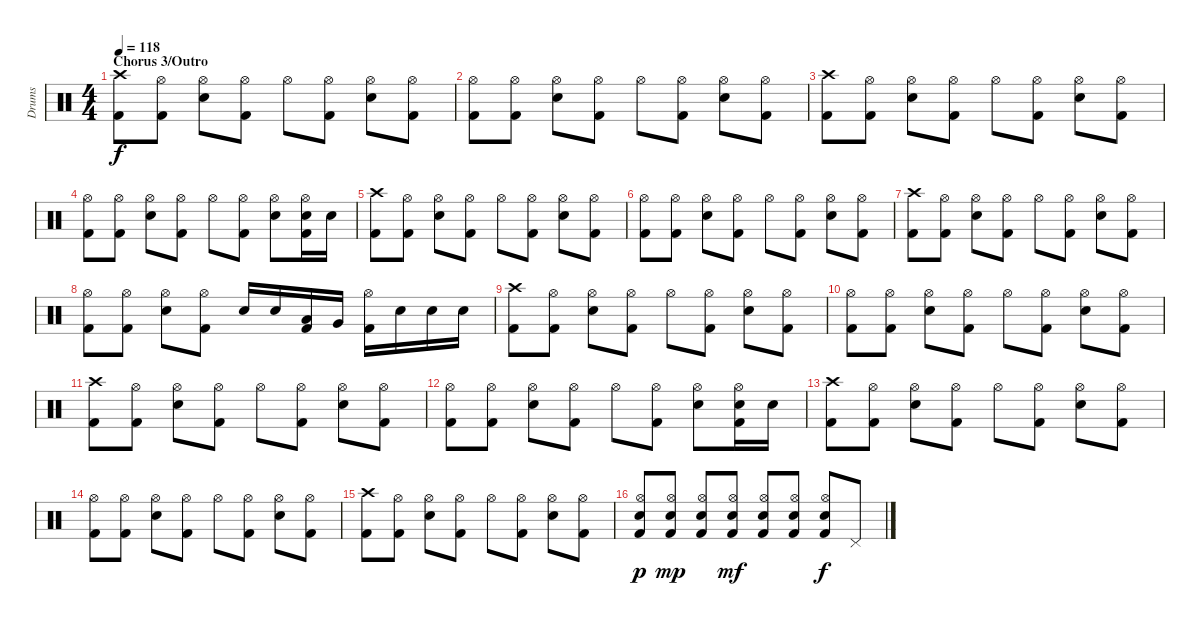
\track ("Drums" "Drums") {instrument percussion}
\staff {score}
\articulation defaults
\ts (4 4)
\section ("" "Chorus 3/Outro")
\tempo 118
\clef neutral
\ks c
("Crash high (hit)" "Kick (hit) 2").8{dy f} ("Hi-Hat (open)" "Kick (hit) 2").8 ("Hi-Hat (open)" "Electric Snare (hit)").8 ("Hi-Hat (open)" "Kick (hit) 2").8 "Hi-Hat (open)".8 ("Hi-Hat (open)" "Kick (hit) 2").8 ("Hi-Hat (open)" "Electric Snare (hit)").8 ("Hi-Hat (open)" "Kick (hit) 2").8 |
("Hi-Hat (open)" "Kick (hit) 2").8 ("Hi-Hat (open)" "Kick (hit) 2").8 ("Hi-Hat (open)" "Electric Snare (hit)").8 ("Hi-Hat (open)" "Kick (hit) 2").8 "Hi-Hat (open)".8 ("Hi-Hat (open)" "Kick (hit) 2").8 ("Hi-Hat (open)" "Electric Snare (hit)").8 ("Hi-Hat (open)" "Kick (hit) 2").8 |
("Crash high (hit)" "Kick (hit) 2").8 ("Hi-Hat (open)" "Kick (hit) 2").8 ("Hi-Hat (open)" "Electric Snare (hit)").8 ("Hi-Hat (open)" "Kick (hit) 2").8 "Hi-Hat (open)".8 ("Hi-Hat (open)" "Kick (hit) 2").8 ("Hi-Hat (open)" "Electric Snare (hit)").8 ("Hi-Hat (open)" "Kick (hit) 2").8 |
("Hi-Hat (open)" "Kick (hit) 2").8 ("Hi-Hat (open)" "Kick (hit) 2").8 ("Hi-Hat (open)" "Electric Snare (hit)").8 ("Hi-Hat (open)" "Kick (hit) 2").8 "Hi-Hat (open)".8 ("Hi-Hat (open)" "Kick (hit) 2").8 ("Hi-Hat (open)" "Electric Snare (hit)").8 ("Hi-Hat (open)" "Electric Snare (hit)" "Kick (hit) 2").16 "Electric Snare (hit)".16 |
("Crash high (hit)" "Kick (hit) 2").8 ("Hi-Hat (open)" "Kick (hit) 2").8 ("Hi-Hat (open)" "Electric Snare (hit)").8 ("Hi-Hat (open)" "Kick (hit) 2").8 "Hi-Hat (open)".8 ("Hi-Hat (open)" "Kick (hit) 2").8 ("Hi-Hat (open)" "Electric Snare (hit)").8 ("Hi-Hat (open)" "Kick (hit) 2").8 |
("Hi-Hat (open)" "Kick (hit) 2").8 ("Hi-Hat (open)" "Kick (hit) 2").8 ("Hi-Hat (open)" "Electric Snare (hit)").8 ("Hi-Hat (open)" "Kick (hit) 2").8 "Hi-Hat (open)".8 ("Hi-Hat (open)" "Kick (hit) 2").8 ("Hi-Hat (open)" "Electric Snare (hit)").8 ("Hi-Hat (open)" "Kick (hit) 2").8 |
("Crash high (hit)" "Kick (hit) 2").8 ("Hi-Hat (open)" "Kick (hit) 2").8 ("Hi-Hat (open)" "Electric Snare (hit)").8 ("Hi-Hat (open)" "Kick (hit) 2").8 "Hi-Hat (open)".8 ("Hi-Hat (open)" "Kick (hit) 2").8 ("Hi-Hat (open)" "Electric Snare (hit)").8 ("Hi-Hat (open)" "Kick (hit) 2").8 |
("Hi-Hat (open)" "Kick (hit) 2").8 ("Hi-Hat (open)" "Kick (hit) 2").8 ("Hi-Hat (open)" "Electric Snare (hit)").8 ("Hi-Hat (open)" "Kick (hit) 2").8 "Electric Snare (hit)".16 "Electric Snare (hit)".16 ("Low Tom (hit)" "Kick (hit) 2").16 "Very Low Tom (hit)".16 ("Hi-Hat (open)" "Kick (hit) 2").16 "Electric Snare (hit)".16 "Electric Snare (hit)".16 "Electric Snare (hit)".16 |
("Crash high (hit)" "Kick (hit) 2").8 ("Hi-Hat (open)" "Kick (hit) 2").8 ("Hi-Hat (open)" "Electric Snare (hit)").8 ("Hi-Hat (open)" "Kick (hit) 2").8 "Hi-Hat (open)".8 ("Hi-Hat (open)" "Kick (hit) 2").8 ("Hi-Hat (open)" "Electric Snare (hit)").8 ("Hi-Hat (open)" "Kick (hit) 2").8 |
("Hi-Hat (open)" "Kick (hit) 2").8 ("Hi-Hat (open)" "Kick (hit) 2").8 ("Hi-Hat (open)" "Electric Snare (hit)").8 ("Hi-Hat (open)" "Kick (hit) 2").8 "Hi-Hat (open)".8 ("Hi-Hat (open)" "Kick (hit) 2").8 ("Hi-Hat (open)" "Electric Snare (hit)").8 ("Hi-Hat (open)" "Kick (hit) 2").8 |
("Crash high (hit)" "Kick (hit) 2").8 ("Hi-Hat (open)" "Kick (hit) 2").8 ("Hi-Hat (open)" "Electric Snare (hit)").8 ("Hi-Hat (open)" "Kick (hit) 2").8 "Hi-Hat (open)".8 ("Hi-Hat (open)" "Kick (hit) 2").8 ("Hi-Hat (open)" "Electric Snare (hit)").8 ("Hi-Hat (open)" "Kick (hit) 2").8 |
("Hi-Hat (open)" "Kick (hit) 2").8 ("Hi-Hat (open)" "Kick (hit) 2").8 ("Hi-Hat (open)" "Electric Snare (hit)").8 ("Hi-Hat (open)" "Kick (hit) 2").8 "Hi-Hat (open)".8 ("Hi-Hat (open)" "Kick (hit) 2").8 ("Hi-Hat (open)" "Electric Snare (hit)").8 ("Hi-Hat (open)" "Electric Snare (hit)" "Kick (hit) 2").16 "Electric Snare (hit)".16 |
("Crash high (hit)" "Kick (hit) 2").8 ("Hi-Hat (open)" "Kick (hit) 2").8 ("Hi-Hat (open)" "Electric Snare (hit)").8 ("Hi-Hat (open)" "Kick (hit) 2").8 "Hi-Hat (open)".8 ("Hi-Hat (open)" "Kick (hit) 2").8 ("Hi-Hat (open)" "Electric Snare (hit)").8 ("Hi-Hat (open)" "Kick (hit) 2").8 |
("Hi-Hat (open)" "Kick (hit) 2").8 ("Hi-Hat (open)" "Kick (hit) 2").8 ("Hi-Hat (open)" "Electric Snare (hit)").8 ("Hi-Hat (open)" "Kick (hit) 2").8 "Hi-Hat (open)".8 ("Hi-Hat (open)" "Kick (hit) 2").8 ("Hi-Hat (open)" "Electric Snare (hit)").8 ("Hi-Hat (open)" "Kick (hit) 2").8 |
("Crash high (hit)" "Kick (hit) 2").8 ("Hi-Hat (open)" "Kick (hit) 2").8 ("Hi-Hat (open)" "Electric Snare (hit)").8 ("Hi-Hat (open)" "Kick (hit) 2").8 "Hi-Hat (open)".8 ("Hi-Hat (open)" "Kick (hit) 2").8 ("Hi-Hat (open)" "Electric Snare (hit)").8 ("Hi-Hat (open)" "Kick (hit) 2").8 |
("Hi-Hat (open)" "Snare (hit) 2" "Kick (hit) 2").8{dy p} ("Hi-Hat (open)" "Snare (hit) 2" "Kick (hit) 2").8{dy mp} ("Hi-Hat (open)" "Snare (hit) 2" "Kick (hit) 2").8 ("Hi-Hat (open)" "Snare (hit) 2" "Kick (hit) 2").8{dy mf} ("Hi-Hat (open)" "Snare (hit) 2" "Kick (hit) 2").8 ("Hi-Hat (open)" "Snare (hit) 2" "Kick (hit) 2").8 ("Hi-Hat (open)" "Snare (hit) 2" "Kick (hit) 2").8{dy f} "Pedal Hi-Hat (hit)".8
